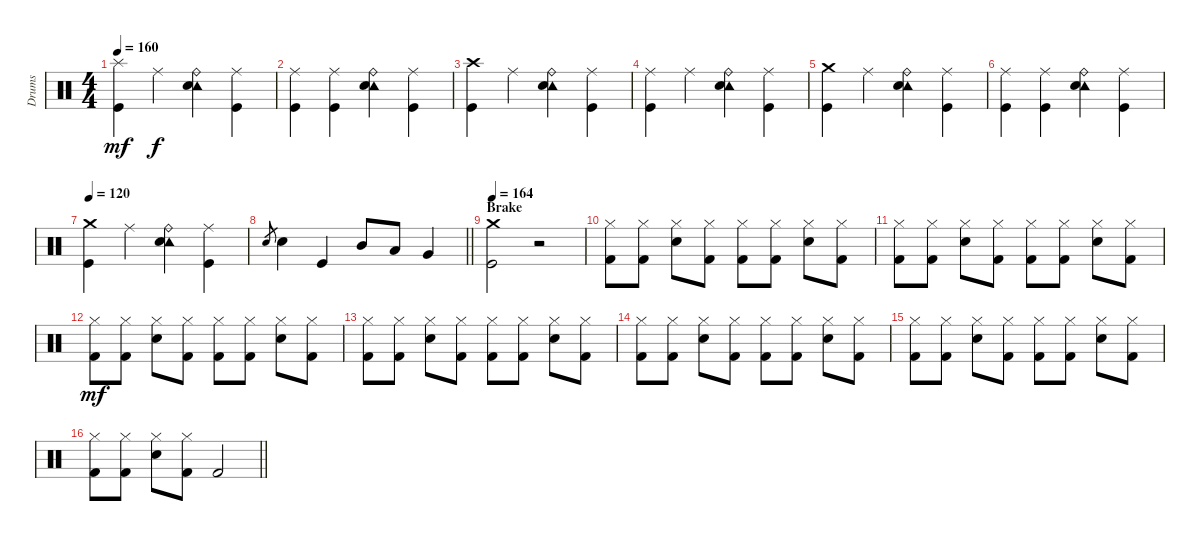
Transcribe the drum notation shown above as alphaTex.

\track ("Drums" "Drums") {instrument percussion}
\staff {score}
\articulation defaults
\ts (4 4)
\tempo 160
\clef neutral
\ks c
("Splash (hit)" "Kick (hit)").4{dy mf} "Ride (middle)".4{dy f} ("Tambourine (hit)" "Ride (bell)" "Electric Snare (hit)").4 ("Ride (middle)" "Kick (hit)").4 |
("Ride (middle)" "Kick (hit)").4 ("Ride (middle)" "Kick (hit)").4 ("Tambourine (hit)" "Ride (bell)" "Electric Snare (hit)").4 ("Ride (middle)" "Kick (hit)").4 |
("Crash high (hit)" "Kick (hit)").4 "Ride (middle)".4 ("Tambourine (hit)" "Ride (bell)" "Electric Snare (hit)").4 ("Ride (middle)" "Kick (hit)").4 |
("Ride (middle)" "Kick (hit)").4 "Ride (middle)".4 ("Tambourine (hit)" "Ride (bell)" "Electric Snare (hit)").4 ("Ride (middle)" "Kick (hit)").4 |
("Crash medium (hit)" "Kick (hit)").4 "Ride (middle)".4 ("Tambourine (hit)" "Ride (bell)" "Electric Snare (hit)").4 ("Ride (middle)" "Kick (hit)").4 |
("Ride (middle)" "Kick (hit)").4 ("Ride (middle)" "Kick (hit)").4 ("Tambourine (hit)" "Ride (bell)" "Electric Snare (hit)").4 ("Ride (middle)" "Kick (hit)").4 |
\tempo 120
("Crash medium (hit)" "Kick (hit)").4 "Ride (middle)".4 ("Tambourine (hit)" "Ride (bell)" "Electric Snare (hit)").4 ("Ride (middle)" "Kick (hit)").4 |
\barLineRight lightlight "Electric Snare (hit)".8{gr} "Electric Snare (hit)".4 "Kick (hit)".4 "Mid Tom (hit)".8 "Low Tom (hit)".8 "Very Low Tom (hit)".4
|
\section ("" "Brake")
\tempo 164
("Crash medium (hit)" "Kick (hit)").2 r.2{volume 0} |
("Hi-Hat (closed)" "Kick (hit) 2").8{volume 13} ("Hi-Hat (closed)" "Kick (hit) 2").8 ("Hi-Hat (closed)" "Snare (hit) 2").8 ("Hi-Hat (closed)" "Kick (hit) 2").8 ("Hi-Hat (closed)" "Kick (hit) 2").8 ("Hi-Hat (closed)" "Kick (hit) 2").8 ("Hi-Hat (closed)" "Snare (hit) 2").8 ("Hi-Hat (closed)" "Kick (hit) 2").8 |
("Hi-Hat (closed)" "Kick (hit) 2").8 ("Hi-Hat (closed)" "Kick (hit) 2").8 ("Hi-Hat (closed)" "Snare (hit) 2").8 ("Hi-Hat (closed)" "Kick (hit) 2").8 ("Hi-Hat (closed)" "Kick (hit) 2").8 ("Hi-Hat (closed)" "Kick (hit) 2").8 ("Hi-Hat (closed)" "Snare (hit) 2").8 ("Hi-Hat (closed)" "Kick (hit) 2").8 |
("Hi-Hat (closed)" "Kick (hit) 2").8{dy mf} ("Hi-Hat (closed)" "Kick (hit) 2").8 ("Hi-Hat (closed)" "Snare (hit) 2").8 ("Hi-Hat (closed)" "Kick (hit) 2").8 ("Hi-Hat (closed)" "Kick (hit) 2").8 ("Hi-Hat (closed)" "Kick (hit) 2").8 ("Hi-Hat (closed)" "Snare (hit) 2").8 ("Hi-Hat (closed)" "Kick (hit) 2").8 |
("Hi-Hat (closed)" "Kick (hit) 2").8 ("Hi-Hat (closed)" "Kick (hit) 2").8 ("Hi-Hat (closed)" "Snare (hit) 2").8 ("Hi-Hat (closed)" "Kick (hit) 2").8 ("Hi-Hat (closed)" "Kick (hit) 2").8 ("Hi-Hat (closed)" "Kick (hit) 2").8 ("Hi-Hat (closed)" "Snare (hit) 2").8 ("Hi-Hat (closed)" "Kick (hit) 2").8 |
("Hi-Hat (closed)" "Kick (hit) 2").8 ("Hi-Hat (closed)" "Kick (hit) 2").8 ("Hi-Hat (closed)" "Snare (hit) 2").8 ("Hi-Hat (closed)" "Kick (hit) 2").8 ("Hi-Hat (closed)" "Kick (hit) 2").8 ("Hi-Hat (closed)" "Kick (hit) 2").8 ("Hi-Hat (closed)" "Snare (hit) 2").8 ("Hi-Hat (closed)" "Kick (hit) 2").8 |
("Hi-Hat (closed)" "Kick (hit) 2").8 ("Hi-Hat (closed)" "Kick (hit) 2").8 ("Hi-Hat (closed)" "Snare (hit) 2").8 ("Hi-Hat (closed)" "Kick (hit) 2").8 ("Hi-Hat (closed)" "Kick (hit) 2").8 ("Hi-Hat (closed)" "Kick (hit) 2").8 ("Hi-Hat (closed)" "Snare (hit) 2").8 ("Hi-Hat (closed)" "Kick (hit) 2").8 |
\barLineRight lightlight
("Hi-Hat (closed)" "Kick (hit) 2").8 ("Hi-Hat (closed)" "Kick (hit) 2").8 ("Hi-Hat (closed)" "Snare (hit) 2").8 ("Hi-Hat (closed)" "Kick (hit) 2").8 "Kick (hit) 2".2
